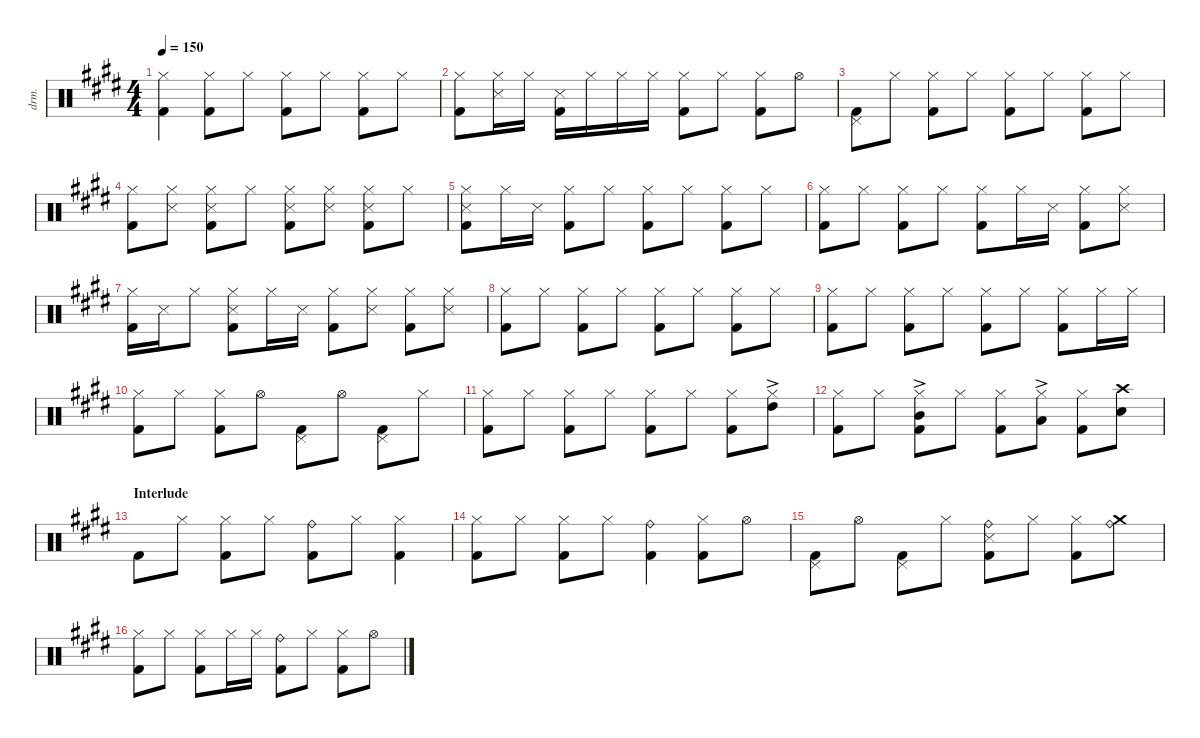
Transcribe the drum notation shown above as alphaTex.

\defaultSystemsLayout 4
\hideDynamics
\bracketExtendMode nobrackets
\otherSystemsTrackNameOrientation horizontal
\track ("Drums - S. Copeland" "drm.") {instrument percussion}
\staff {score}
\articulation defaults
\ts (4 4)
\tempo 150
\clef neutral
\ks c#minor
("Hi-Hat (closed)"{acc forcenatural} "Kick (hit) 2"{acc forcenatural}).4{dy mf beam Down} ("Hi-Hat (closed)"{acc forcenatural} "Kick (hit) 2"{acc forcenatural}).8{beam Down} "Hi-Hat (closed)"{acc forcenatural}.8{beam Down} ("Hi-Hat (closed)"{acc forcenatural} "Kick (hit) 2"{acc forcenatural}).8{beam Down} "Hi-Hat (closed)"{acc forcenatural}.8{beam Down} ("Hi-Hat (closed)"{acc forcenatural} "Kick (hit) 2"{acc forcenatural}).8{beam Down} "Hi-Hat (closed)"{acc forcenatural}.8{beam Down} |
("Hi-Hat (closed)"{acc forcenatural} "Kick (hit) 2"{acc forcenatural}).8{beam Down} ("Hi-Hat (closed)"{acc forcenatural} "Snare (side stick) 3"{acc forcenatural}).16{beam Down} "Hi-Hat (closed)"{acc forcenatural}.16{beam Down} ("Kick (hit) 2"{acc forcenatural} "Snare (side stick) 3"{acc forcenatural}).16{beam Down} "Hi-Hat (closed)"{acc forcenatural}.16{beam Down} "Hi-Hat (closed)"{acc forcenatural}.16{beam Down} "Hi-Hat (closed)"{acc forcenatural}.16{beam Down} ("Hi-Hat (closed)"{acc forcenatural} "Kick (hit) 2"{acc forcenatural}).8{beam Down} "Hi-Hat (closed)"{acc forcenatural}.8{beam Down} ("Hi-Hat (closed)"{acc forcenatural} "Kick (hit) 2"{acc forcenatural}).8{beam Down} "Hi-Hat (open)"{acc forcenatural}.8{beam Down} |
("Pedal Hi-Hat (hit)"{acc forcenatural} "Kick (hit) 2"{acc forcenatural}).8{beam Down} "Hi-Hat (closed)"{acc forcenatural}.8{beam Down} ("Hi-Hat (closed)"{acc forcenatural} "Kick (hit) 2"{acc forcenatural}).8{beam Down} "Hi-Hat (closed)"{acc forcenatural}.8{beam Down} ("Hi-Hat (closed)"{acc forcenatural} "Kick (hit) 2"{acc forcenatural}).8{beam Down} "Hi-Hat (closed)"{acc forcenatural}.8{beam Down} ("Hi-Hat (closed)"{acc forcenatural} "Kick (hit) 2"{acc forcenatural}).8{beam Down} "Hi-Hat (closed)"{acc forcenatural}.8{beam Down} |
("Hi-Hat (closed)"{acc forcenatural} "Kick (hit) 2"{acc forcenatural}).8{beam Down} ("Hi-Hat (closed)"{acc forcenatural} "Snare (side stick) 3"{acc forcenatural}).8{beam Down} ("Hi-Hat (closed)"{acc forcenatural} "Kick (hit) 2"{acc forcenatural} "Snare (side stick) 3"{acc forcenatural}).8{beam Down} "Hi-Hat (closed)"{acc forcenatural}.8{beam Down} ("Hi-Hat (closed)"{acc forcenatural} "Kick (hit) 2"{acc forcenatural} "Snare (side stick) 3"{acc forcenatural}).8{beam Down} ("Hi-Hat (closed)"{acc forcenatural} "Snare (side stick) 3"{acc forcenatural}).8{beam Down} ("Hi-Hat (closed)"{acc forcenatural} "Kick (hit) 2"{acc forcenatural} "Snare (side stick) 3"{acc forcenatural}).8{beam Down} "Hi-Hat (closed)"{acc forcenatural}.8{beam Down} |
("Hi-Hat (closed)"{acc forcenatural} "Kick (hit) 2"{acc forcenatural} "Snare (side stick) 3"{acc forcenatural}).8{beam Down} "Hi-Hat (closed)"{acc forcenatural}.16{beam Down} "Snare (side stick) 3"{acc forcenatural}.16{beam Down} ("Hi-Hat (closed)"{acc forcenatural} "Kick (hit) 2"{acc forcenatural}).8{beam Down} "Hi-Hat (closed)"{acc forcenatural}.8{beam Down} ("Hi-Hat (closed)"{acc forcenatural} "Kick (hit) 2"{acc forcenatural}).8{beam Down} "Hi-Hat (closed)"{acc forcenatural}.8{beam Down} ("Hi-Hat (closed)"{acc forcenatural} "Kick (hit) 2"{acc forcenatural}).8{beam Down} "Hi-Hat (closed)"{acc forcenatural}.8{beam Down} |
("Hi-Hat (closed)"{acc forcenatural} "Kick (hit) 2"{acc forcenatural}).8{beam Down} "Hi-Hat (closed)"{acc forcenatural}.8{beam Down} ("Hi-Hat (closed)"{acc forcenatural} "Kick (hit) 2"{acc forcenatural}).8{beam Down} "Hi-Hat (closed)"{acc forcenatural}.8{beam Down} ("Hi-Hat (closed)"{acc forcenatural} "Kick (hit) 2"{acc forcenatural}).8{beam Down} "Hi-Hat (closed)"{acc forcenatural}.16{beam Down} "Snare (side stick) 3"{acc forcenatural}.16{beam Down} ("Hi-Hat (closed)"{acc forcenatural} "Kick (hit) 2"{acc forcenatural}).8{beam Down} ("Hi-Hat (closed)"{acc forcenatural} "Snare (side stick) 3"{acc forcenatural}).8{beam Down} |
("Hi-Hat (closed)"{acc forcenatural} "Kick (hit) 2"{acc forcenatural}).16{beam Down} "Snare (side stick) 3"{acc forcenatural}.16{beam Down} "Hi-Hat (closed)"{acc forcenatural}.8{beam Down} ("Hi-Hat (closed)"{acc forcenatural} "Kick (hit) 2"{acc forcenatural} "Snare (side stick) 3"{acc forcenatural}).8{beam Down} "Hi-Hat (closed)"{acc forcenatural}.16{beam Down} "Snare (side stick) 3"{acc forcenatural}.16{beam Down} ("Hi-Hat (closed)"{acc forcenatural} "Kick (hit) 2"{acc forcenatural}).8{beam Down} ("Hi-Hat (closed)"{acc forcenatural} "Snare (side stick) 3"{acc forcenatural}).8{beam Down} ("Hi-Hat (closed)"{acc forcenatural} "Kick (hit) 2"{acc forcenatural}).8{beam Down} ("Hi-Hat (closed)"{acc forcenatural} "Snare (side stick) 3"{acc forcenatural}).8{beam Down} |
("Hi-Hat (closed)"{acc forcenatural} "Kick (hit) 2"{acc forcenatural}).8{beam Down} "Hi-Hat (closed)"{acc forcenatural}.8{beam Down} ("Hi-Hat (closed)"{acc forcenatural} "Kick (hit) 2"{acc forcenatural}).8{beam Down} "Hi-Hat (closed)"{acc forcenatural}.8{beam Down} ("Hi-Hat (closed)"{acc forcenatural} "Kick (hit) 2"{acc forcenatural}).8{beam Down} "Hi-Hat (closed)"{acc forcenatural}.8{beam Down} ("Hi-Hat (closed)"{acc forcenatural} "Kick (hit) 2"{acc forcenatural}).8{beam Down} "Hi-Hat (closed)"{acc forcenatural}.8{beam Down} |
("Hi-Hat (closed)"{acc forcenatural} "Kick (hit) 2"{acc forcenatural}).8{beam Down} "Hi-Hat (closed)"{acc forcenatural}.8{beam Down} ("Hi-Hat (closed)"{acc forcenatural} "Kick (hit) 2"{acc forcenatural}).8{beam Down} "Hi-Hat (closed)"{acc forcenatural}.8{beam Down} ("Hi-Hat (closed)"{acc forcenatural} "Kick (hit) 2"{acc forcenatural}).8{beam Down} "Hi-Hat (closed)"{acc forcenatural}.8{beam Down} ("Hi-Hat (closed)"{acc forcenatural} "Kick (hit) 2"{acc forcenatural}).8{beam Down} "Hi-Hat (closed)"{acc forcenatural}.16{beam Down} "Hi-Hat (closed)"{acc forcenatural}.16{beam Down} |
("Hi-Hat (closed)"{acc forcenatural} "Kick (hit) 2"{acc forcenatural}).8{beam Down} "Hi-Hat (closed)"{acc forcenatural}.8{beam Down} ("Hi-Hat (closed)"{acc forcenatural} "Kick (hit) 2"{acc forcenatural}).8{beam Down} "Hi-Hat (open)"{acc forcenatural}.8{beam Down} ("Pedal Hi-Hat (hit)"{acc forcenatural} "Kick (hit) 2"{acc forcenatural}).8{beam Down} "Hi-Hat (open)"{acc forcenatural}.8{beam Down} ("Pedal Hi-Hat (hit)"{acc forcenatural} "Kick (hit) 2"{acc forcenatural}).8{beam Down} "Hi-Hat (closed)"{acc forcenatural}.8{beam Down} |
("Hi-Hat (closed)"{acc forcenatural} "Kick (hit) 2"{acc forcenatural}).8{beam Down} "Hi-Hat (closed)"{acc forcenatural}.8{beam Down} ("Hi-Hat (closed)"{acc forcenatural} "Kick (hit) 2"{acc forcenatural}).8{beam Down} "Hi-Hat (closed)"{acc forcenatural}.8{beam Down} ("Hi-Hat (closed)"{acc forcenatural} "Kick (hit) 2"{acc forcenatural}).8{beam Down} "Hi-Hat (closed)"{acc forcenatural}.8{beam Down} ("Hi-Hat (closed)"{acc forcenatural} "Kick (hit) 2"{acc forcenatural}).8{beam Down} ("Hi-Hat (closed)"{acc forcenatural} "High Tom (hit)"{ac acc forcenatural}).8{beam Down} |
("Hi-Hat (closed)"{acc forcenatural} "Kick (hit) 2"{acc forcenatural}).8{beam Down} "Hi-Hat (closed)"{acc forcenatural}.8{beam Down} ("Hi-Hat (closed)"{acc forcenatural} "Kick (hit) 2"{acc forcenatural} "Mid Tom (hit)"{ac acc forcenatural}).8{beam Down} "Hi-Hat (closed)"{acc forcenatural}.8{beam Down} ("Hi-Hat (closed)"{acc forcenatural} "Kick (hit) 2"{acc forcenatural}).8{beam Down} ("Hi-Hat (closed)"{acc forcenatural} "Low Tom (hit)"{ac acc forcenatural}).8{beam Down} ("Hi-Hat (closed)"{acc forcenatural} "Kick (hit) 2"{acc forcenatural}).8{beam Down} ("Snare (hit) 2"{acc forcenatural} "Crash high (hit)"{acc forcenatural}).8{beam Down} |
\section ("" "Interlude")
"Kick (hit) 2"{acc forcenatural}.8{beam Down} "Hi-Hat (closed)"{acc forcenatural}.8{beam Down} ("Hi-Hat (closed)"{acc forcenatural} "Kick (hit) 2"{acc forcenatural}).8{beam Down} "Hi-Hat (closed)"{acc forcenatural}.8{beam Down} ("Kick (hit) 2"{acc forcenatural} "Ride (bell)"{acc forcenatural}).8{beam Down} "Hi-Hat (closed)"{acc forcenatural}.8{beam Down} ("Hi-Hat (closed)"{acc forcenatural} "Kick (hit) 2"{acc forcenatural}).4{beam Down} |
("Hi-Hat (closed)"{acc forcenatural} "Kick (hit) 2"{acc forcenatural}).8{beam Down} "Hi-Hat (closed)"{acc forcenatural}.8{beam Down} ("Hi-Hat (closed)"{acc forcenatural} "Kick (hit) 2"{acc forcenatural}).8{beam Down} "Hi-Hat (closed)"{acc forcenatural}.8{beam Down} ("Kick (hit) 2"{acc forcenatural} "Ride (bell)"{acc forcenatural}).4{beam Down} ("Hi-Hat (closed)"{acc forcenatural} "Kick (hit) 2"{acc forcenatural}).8{beam Down} "Hi-Hat (open)"{acc forcenatural}.8{beam Down} |
("Pedal Hi-Hat (hit)"{acc forcenatural} "Kick (hit) 2"{acc forcenatural}).8{beam Down} "Hi-Hat (open)"{acc forcenatural}.8{beam Down} ("Pedal Hi-Hat (hit)"{acc forcenatural} "Kick (hit) 2"{acc forcenatural}).8{beam Down} "Hi-Hat (closed)"{acc forcenatural}.8{beam Down} ("Kick (hit) 2"{acc forcenatural} "Ride (bell)"{acc forcenatural} "Snare (side stick) 3"{acc forcenatural}).8{beam Down} "Hi-Hat (closed)"{acc forcenatural}.8{beam Down} ("Hi-Hat (closed)"{acc forcenatural} "Kick (hit) 2"{acc forcenatural}).8{beam Down} ("Ride (bell)"{acc forcenatural} "Crash medium (hit)"{acc forcenatural}).8{beam Down} |
("Hi-Hat (closed)"{acc forcenatural} "Kick (hit) 2"{acc forcenatural}).8{beam Down} "Hi-Hat (closed)"{acc forcenatural}.8{beam Down} ("Hi-Hat (closed)"{acc forcenatural} "Kick (hit) 2"{acc forcenatural}).8{beam Down} "Hi-Hat (closed)"{acc forcenatural}.16{beam Down} "Hi-Hat (closed)"{acc forcenatural}.16{beam Down} ("Kick (hit) 2"{acc forcenatural} "Ride (bell)"{acc forcenatural}).8{beam Down} "Hi-Hat (closed)"{acc forcenatural}.8{beam Down} ("Hi-Hat (closed)"{acc forcenatural} "Kick (hit) 2"{acc forcenatural}).8{beam Down} "Hi-Hat (open)"{acc forcenatural}.8{beam Down}
